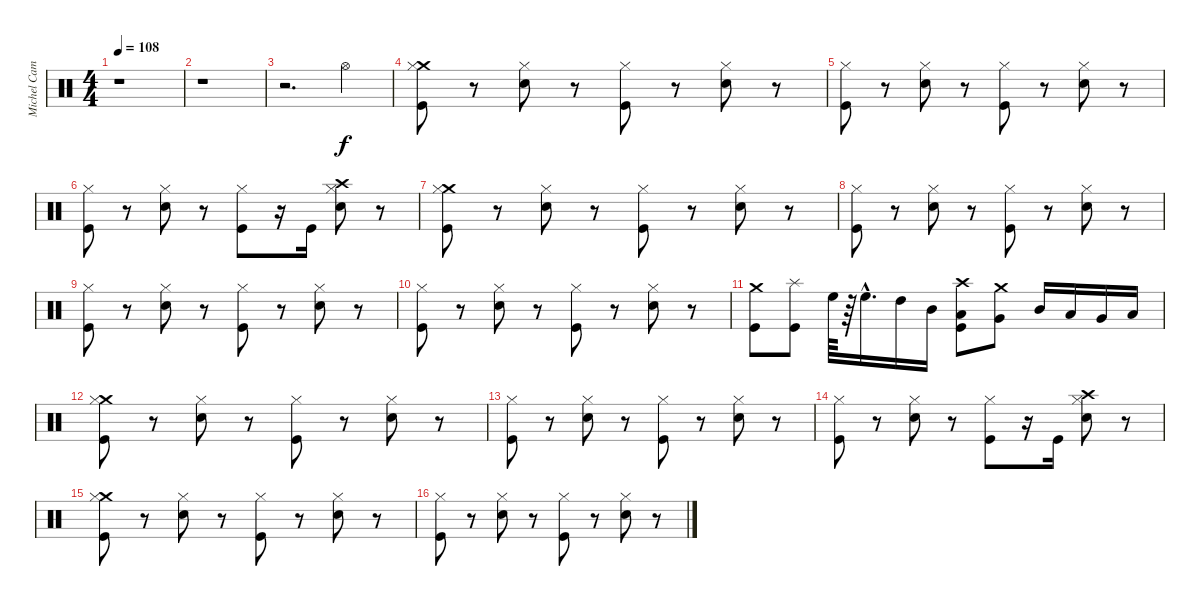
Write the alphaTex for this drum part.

\track ("Michel Camiade" "Michel Cam") {instrument percussion}
\staff {score}
\articulation defaults
\ts (4 4)
\tempo 108
\clef neutral
\ks c
r.1{dy f} |
r.1 |
r.2{d} "Hi-Hat (open)".4 |
("Crash medium (hit)" "Hi-Hat (closed)" "Kick (hit)").8 r.8 ("Hi-Hat (closed)" "Snare (hit) 2").8 r.8 ("Hi-Hat (closed)" "Kick (hit)").8 r.8 ("Hi-Hat (closed)" "Snare (hit) 2").8 r.8 |
("Hi-Hat (closed)" "Kick (hit)").8 r.8 ("Hi-Hat (closed)" "Snare (hit) 2").8 r.8 ("Hi-Hat (closed)" "Kick (hit)").8 r.8 ("Hi-Hat (closed)" "Snare (hit) 2").8 r.8 |
("Hi-Hat (closed)" "Kick (hit)").8 r.8 ("Hi-Hat (closed)" "Snare (hit) 2").8 r.8 ("Hi-Hat (closed)" "Kick (hit)").8 r.16 "Kick (hit)".16 ("Crash high (hit)" "Hi-Hat (closed)" "Snare (hit) 2").8 r.8 |
("Crash medium (hit)" "Hi-Hat (closed)" "Kick (hit)").8 r.8 ("Hi-Hat (closed)" "Snare (hit) 2").8 r.8 ("Hi-Hat (closed)" "Kick (hit)").8 r.8 ("Hi-Hat (closed)" "Snare (hit) 2").8 r.8 |
("Hi-Hat (closed)" "Kick (hit)").8 r.8 ("Hi-Hat (closed)" "Snare (hit) 2").8 r.8 ("Hi-Hat (closed)" "Kick (hit)").8 r.8 ("Hi-Hat (closed)" "Snare (hit) 2").8 r.8 |
("Hi-Hat (closed)" "Kick (hit)").8 r.8 ("Hi-Hat (closed)" "Snare (hit) 2").8 r.8 ("Hi-Hat (closed)" "Kick (hit)").8 r.8 ("Hi-Hat (closed)" "Snare (hit) 2").8 r.8 |
("Hi-Hat (closed)" "Kick (hit)").8 r.8 ("Hi-Hat (closed)" "Snare (hit) 2").8 r.8 ("Hi-Hat (closed)" "Kick (hit)").8 r.8 ("Hi-Hat (closed)" "Snare (hit) 2").8 r.8 |
("Crash medium (hit)" "Kick (hit)").8 ("Splash (hit)" "Kick (hit)").8 "High Floor Tom (hit)".64 r.64 "High Floor Tom (hit)"{hac}.16{d} "High Tom (hit)".16 "Mid Tom (hit)".16 ("Crash high (hit)" "Low Tom (hit)" "Kick (hit)").8 ("Crash medium (hit)" "Very Low Tom (hit)").8 "Mid Tom (hit)".16 "Low Tom (hit)".16 "Very Low Tom (hit)".16 "Low Floor Tom (hit)".16 |
("Crash medium (hit)" "Hi-Hat (closed)" "Kick (hit)").8 r.8 ("Hi-Hat (closed)" "Snare (hit) 2").8 r.8 ("Hi-Hat (closed)" "Kick (hit)").8 r.8 ("Hi-Hat (closed)" "Snare (hit) 2").8 r.8 |
("Hi-Hat (closed)" "Kick (hit)").8 r.8 ("Hi-Hat (closed)" "Snare (hit) 2").8 r.8 ("Hi-Hat (closed)" "Kick (hit)").8 r.8 ("Hi-Hat (closed)" "Snare (hit) 2").8 r.8 |
("Hi-Hat (closed)" "Kick (hit)").8 r.8 ("Hi-Hat (closed)" "Snare (hit) 2").8 r.8 ("Hi-Hat (closed)" "Kick (hit)").8 r.16 "Kick (hit)".16 ("Crash high (hit)" "Hi-Hat (closed)" "Snare (hit) 2").8 r.8 |
("Crash medium (hit)" "Hi-Hat (closed)" "Kick (hit)").8 r.8 ("Hi-Hat (closed)" "Snare (hit) 2").8 r.8 ("Hi-Hat (closed)" "Kick (hit)").8 r.8 ("Hi-Hat (closed)" "Snare (hit) 2").8 r.8 |
("Hi-Hat (closed)" "Kick (hit)").8 r.8 ("Hi-Hat (closed)" "Snare (hit) 2").8 r.8 ("Hi-Hat (closed)" "Kick (hit)").8 r.8 ("Hi-Hat (closed)" "Snare (hit) 2").8 r.8
